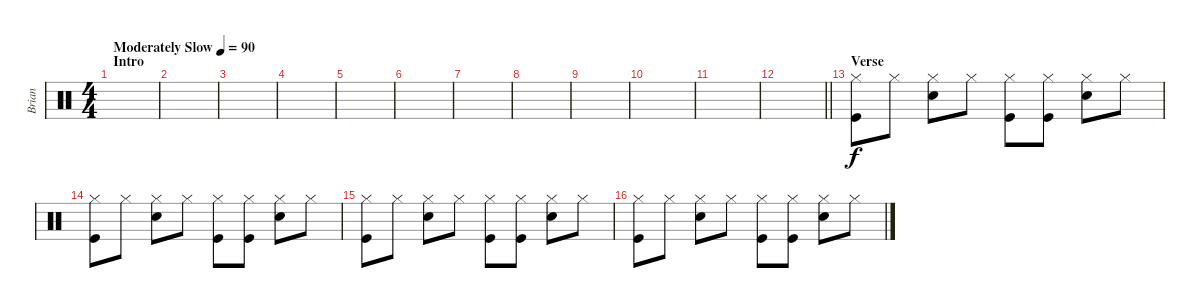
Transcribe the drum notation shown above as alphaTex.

\track ("Brian" "Brian") {instrument percussion}
\staff {score}
\articulation defaults
\ts (4 4)
\section ("" "Intro")
\tempo (90 "Moderately Slow")
\clef neutral
\ks c
|
|
|
|
|
|
|
|
|
|
|
\barLineRight lightlight
|
\section ("" "Verse")
("Hi-Hat (closed)" "Kick (hit)").8 "Hi-Hat (closed)".8 ("Hi-Hat (closed)" "Snare (hit) 2").8 "Hi-Hat (closed)".8 ("Hi-Hat (closed)" "Kick (hit)").8 ("Hi-Hat (closed)" "Kick (hit)").8 ("Hi-Hat (closed)" "Snare (hit) 2").8 "Hi-Hat (closed)".8 |
("Hi-Hat (closed)" "Kick (hit)").8 "Hi-Hat (closed)".8 ("Hi-Hat (closed)" "Snare (hit) 2").8 "Hi-Hat (closed)".8 ("Hi-Hat (closed)" "Kick (hit)").8 ("Hi-Hat (closed)" "Kick (hit)").8 ("Hi-Hat (closed)" "Snare (hit) 2").8 "Hi-Hat (closed)".8 |
("Hi-Hat (closed)" "Kick (hit)").8 "Hi-Hat (closed)".8 ("Hi-Hat (closed)" "Snare (hit) 2").8 "Hi-Hat (closed)".8 ("Hi-Hat (closed)" "Kick (hit)").8 ("Hi-Hat (closed)" "Kick (hit)").8 ("Hi-Hat (closed)" "Snare (hit) 2").8 "Hi-Hat (closed)".8 |
("Hi-Hat (closed)" "Kick (hit)").8 "Hi-Hat (closed)".8 ("Hi-Hat (closed)" "Snare (hit) 2").8 "Hi-Hat (closed)".8 ("Hi-Hat (closed)" "Kick (hit)").8 ("Hi-Hat (closed)" "Kick (hit)").8 ("Hi-Hat (closed)" "Snare (hit) 2").8 "Hi-Hat (closed)".8
